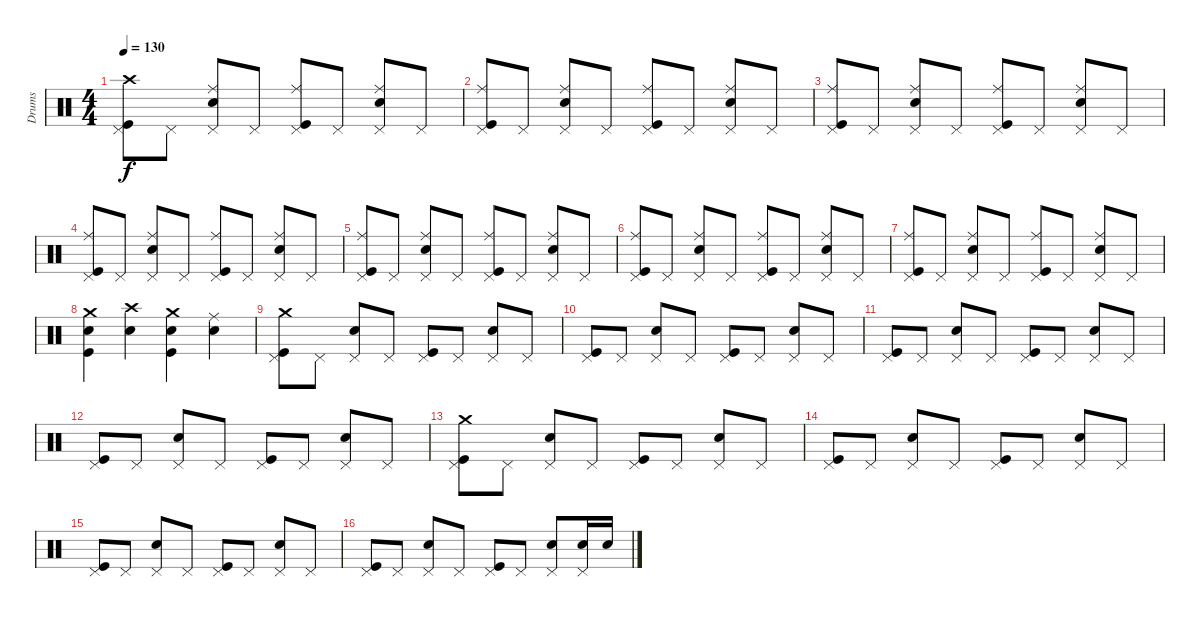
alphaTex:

\track ("Drums" "Drums") {instrument percussion}
\staff {score}
\articulation defaults
\ts (4 4)
\tempo 130
\clef neutral
\ks c
("Crash high (hit)" "Pedal Hi-Hat (hit)" "Kick (hit)").8{dy f} "Pedal Hi-Hat (hit)".8 ("Ride (middle)" "Pedal Hi-Hat (hit)" "Electric Snare (hit)").8 "Pedal Hi-Hat (hit)".8 ("Ride (middle)" "Pedal Hi-Hat (hit)" "Kick (hit)").8 "Pedal Hi-Hat (hit)".8 ("Ride (middle)" "Pedal Hi-Hat (hit)" "Electric Snare (hit)").8 "Pedal Hi-Hat (hit)".8 |
("Ride (middle)" "Pedal Hi-Hat (hit)" "Kick (hit)").8 "Pedal Hi-Hat (hit)".8 ("Ride (middle)" "Pedal Hi-Hat (hit)" "Electric Snare (hit)").8 "Pedal Hi-Hat (hit)".8 ("Ride (middle)" "Pedal Hi-Hat (hit)" "Kick (hit)").8 "Pedal Hi-Hat (hit)".8 ("Ride (middle)" "Pedal Hi-Hat (hit)" "Electric Snare (hit)").8 "Pedal Hi-Hat (hit)".8 |
("Ride (middle)" "Pedal Hi-Hat (hit)" "Kick (hit)").8 "Pedal Hi-Hat (hit)".8 ("Ride (middle)" "Pedal Hi-Hat (hit)" "Electric Snare (hit)").8 "Pedal Hi-Hat (hit)".8 ("Ride (middle)" "Pedal Hi-Hat (hit)" "Kick (hit)").8 "Pedal Hi-Hat (hit)".8 ("Ride (middle)" "Pedal Hi-Hat (hit)" "Electric Snare (hit)").8 "Pedal Hi-Hat (hit)".8 |
("Ride (middle)" "Pedal Hi-Hat (hit)" "Kick (hit)").8 "Pedal Hi-Hat (hit)".8 ("Ride (middle)" "Pedal Hi-Hat (hit)" "Electric Snare (hit)").8 "Pedal Hi-Hat (hit)".8 ("Ride (middle)" "Pedal Hi-Hat (hit)" "Kick (hit)").8 "Pedal Hi-Hat (hit)".8 ("Ride (middle)" "Pedal Hi-Hat (hit)" "Electric Snare (hit)").8 "Pedal Hi-Hat (hit)".8 |
("Ride (middle)" "Pedal Hi-Hat (hit)" "Kick (hit)").8 "Pedal Hi-Hat (hit)".8 ("Ride (middle)" "Pedal Hi-Hat (hit)" "Electric Snare (hit)").8 "Pedal Hi-Hat (hit)".8 ("Ride (middle)" "Pedal Hi-Hat (hit)" "Kick (hit)").8 "Pedal Hi-Hat (hit)".8 ("Ride (middle)" "Pedal Hi-Hat (hit)" "Electric Snare (hit)").8 "Pedal Hi-Hat (hit)".8 |
("Ride (middle)" "Pedal Hi-Hat (hit)" "Kick (hit)").8 "Pedal Hi-Hat (hit)".8 ("Ride (middle)" "Pedal Hi-Hat (hit)" "Electric Snare (hit)").8 "Pedal Hi-Hat (hit)".8 ("Ride (middle)" "Pedal Hi-Hat (hit)" "Kick (hit)").8 "Pedal Hi-Hat (hit)".8 ("Ride (middle)" "Pedal Hi-Hat (hit)" "Electric Snare (hit)").8 "Pedal Hi-Hat (hit)".8 |
("Ride (middle)" "Pedal Hi-Hat (hit)" "Kick (hit)").8 "Pedal Hi-Hat (hit)".8 ("Ride (middle)" "Pedal Hi-Hat (hit)" "Electric Snare (hit)").8 "Pedal Hi-Hat (hit)".8 ("Ride (middle)" "Pedal Hi-Hat (hit)" "Kick (hit)").8 "Pedal Hi-Hat (hit)".8 ("Ride (middle)" "Pedal Hi-Hat (hit)" "Electric Snare (hit)").8 "Pedal Hi-Hat (hit)".8 |
("Electric Snare (hit)" "Crash medium (hit)" "Kick (hit)").4 ("Crash high (hit)" "Electric Snare (hit)").4 ("Electric Snare (hit)" "Crash medium (hit)" "Kick (hit)").4 ("Ride (middle)" "Electric Snare (hit)").4 |
("Pedal Hi-Hat (hit)" "Kick (hit)" "Crash medium (hit)").8 "Pedal Hi-Hat (hit)".8 ("Pedal Hi-Hat (hit)" "Electric Snare (hit)").8 "Pedal Hi-Hat (hit)".8 ("Pedal Hi-Hat (hit)" "Kick (hit)").8 "Pedal Hi-Hat (hit)".8 ("Pedal Hi-Hat (hit)" "Electric Snare (hit)").8 "Pedal Hi-Hat (hit)".8 |
("Pedal Hi-Hat (hit)" "Kick (hit)").8 "Pedal Hi-Hat (hit)".8 ("Pedal Hi-Hat (hit)" "Electric Snare (hit)").8 "Pedal Hi-Hat (hit)".8 ("Pedal Hi-Hat (hit)" "Kick (hit)").8 "Pedal Hi-Hat (hit)".8 ("Pedal Hi-Hat (hit)" "Electric Snare (hit)").8 "Pedal Hi-Hat (hit)".8 |
("Pedal Hi-Hat (hit)" "Kick (hit)").8 "Pedal Hi-Hat (hit)".8 ("Pedal Hi-Hat (hit)" "Electric Snare (hit)").8 "Pedal Hi-Hat (hit)".8 ("Pedal Hi-Hat (hit)" "Kick (hit)").8 "Pedal Hi-Hat (hit)".8 ("Pedal Hi-Hat (hit)" "Electric Snare (hit)").8 "Pedal Hi-Hat (hit)".8 |
("Pedal Hi-Hat (hit)" "Kick (hit)").8 "Pedal Hi-Hat (hit)".8 ("Pedal Hi-Hat (hit)" "Electric Snare (hit)").8 "Pedal Hi-Hat (hit)".8 ("Pedal Hi-Hat (hit)" "Kick (hit)").8 "Pedal Hi-Hat (hit)".8 ("Pedal Hi-Hat (hit)" "Electric Snare (hit)").8 "Pedal Hi-Hat (hit)".8 |
("Pedal Hi-Hat (hit)" "Kick (hit)" "Crash medium (hit)").8 "Pedal Hi-Hat (hit)".8 ("Pedal Hi-Hat (hit)" "Electric Snare (hit)").8 "Pedal Hi-Hat (hit)".8 ("Pedal Hi-Hat (hit)" "Kick (hit)").8 "Pedal Hi-Hat (hit)".8 ("Pedal Hi-Hat (hit)" "Electric Snare (hit)").8 "Pedal Hi-Hat (hit)".8 |
("Pedal Hi-Hat (hit)" "Kick (hit)").8 "Pedal Hi-Hat (hit)".8 ("Pedal Hi-Hat (hit)" "Electric Snare (hit)").8 "Pedal Hi-Hat (hit)".8 ("Pedal Hi-Hat (hit)" "Kick (hit)").8 "Pedal Hi-Hat (hit)".8 ("Pedal Hi-Hat (hit)" "Electric Snare (hit)").8 "Pedal Hi-Hat (hit)".8 |
("Pedal Hi-Hat (hit)" "Kick (hit)").8 "Pedal Hi-Hat (hit)".8 ("Pedal Hi-Hat (hit)" "Electric Snare (hit)").8 "Pedal Hi-Hat (hit)".8 ("Pedal Hi-Hat (hit)" "Kick (hit)").8 "Pedal Hi-Hat (hit)".8 ("Pedal Hi-Hat (hit)" "Electric Snare (hit)").8 "Pedal Hi-Hat (hit)".8 |
("Pedal Hi-Hat (hit)" "Kick (hit)").8 "Pedal Hi-Hat (hit)".8 ("Pedal Hi-Hat (hit)" "Electric Snare (hit)").8 "Pedal Hi-Hat (hit)".8 ("Pedal Hi-Hat (hit)" "Kick (hit)").8 "Pedal Hi-Hat (hit)".8 ("Pedal Hi-Hat (hit)" "Electric Snare (hit)").8 ("Electric Snare (hit)" "Pedal Hi-Hat (hit)").16 "Electric Snare (hit)".16
